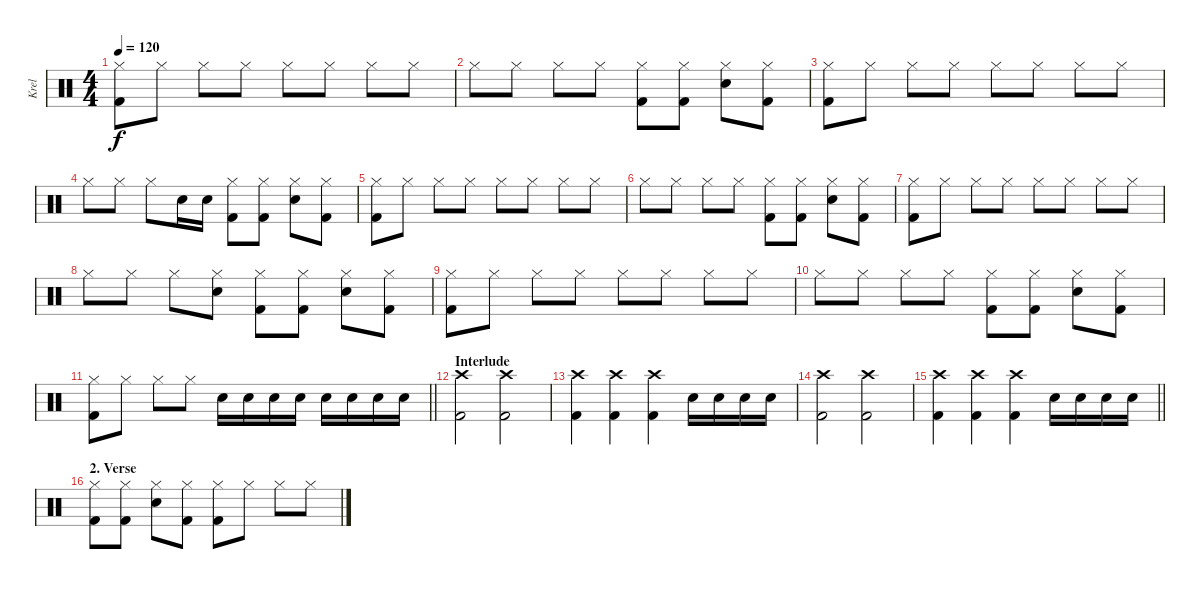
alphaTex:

\track ("Krel" "Krel") {instrument percussion}
\staff {score}
\articulation defaults
\ts (4 4)
\tempo 120
\clef neutral
\ks c
("Hi-Hat (closed)" "Kick (hit) 2").8{dy f} "Hi-Hat (closed)".8 "Hi-Hat (closed)".8 "Hi-Hat (closed)".8 "Hi-Hat (closed)".8 "Hi-Hat (closed)".8 "Hi-Hat (closed)".8 "Hi-Hat (closed)".8 |
"Hi-Hat (closed)".8 "Hi-Hat (closed)".8 "Hi-Hat (closed)".8 "Hi-Hat (closed)".8 ("Hi-Hat (closed)" "Kick (hit) 2").8 ("Hi-Hat (closed)" "Kick (hit) 2").8 ("Hi-Hat (closed)" "Snare (hit) 2").8 ("Hi-Hat (closed)" "Kick (hit) 2").8 |
("Hi-Hat (closed)" "Kick (hit) 2").8 "Hi-Hat (closed)".8 "Hi-Hat (closed)".8 "Hi-Hat (closed)".8 "Hi-Hat (closed)".8 "Hi-Hat (closed)".8 "Hi-Hat (closed)".8 "Hi-Hat (closed)".8 |
"Hi-Hat (closed)".8 "Hi-Hat (closed)".8 "Hi-Hat (closed)".8 "Snare (hit) 2".16 "Snare (hit) 2".16 ("Hi-Hat (closed)" "Kick (hit) 2").8 ("Hi-Hat (closed)" "Kick (hit) 2").8 ("Hi-Hat (closed)" "Snare (hit) 2").8 ("Hi-Hat (closed)" "Kick (hit) 2").8 |
("Hi-Hat (closed)" "Kick (hit) 2").8 "Hi-Hat (closed)".8 "Hi-Hat (closed)".8 "Hi-Hat (closed)".8 "Hi-Hat (closed)".8 "Hi-Hat (closed)".8 "Hi-Hat (closed)".8 "Hi-Hat (closed)".8 |
"Hi-Hat (closed)".8 "Hi-Hat (closed)".8 "Hi-Hat (closed)".8 "Hi-Hat (closed)".8 ("Hi-Hat (closed)" "Kick (hit) 2").8 ("Hi-Hat (closed)" "Kick (hit) 2").8 ("Hi-Hat (closed)" "Snare (hit) 2").8 ("Hi-Hat (closed)" "Kick (hit) 2").8 |
("Hi-Hat (closed)" "Kick (hit) 2").8 "Hi-Hat (closed)".8 "Hi-Hat (closed)".8 "Hi-Hat (closed)".8 "Hi-Hat (closed)".8 "Hi-Hat (closed)".8 "Hi-Hat (closed)".8 "Hi-Hat (closed)".8 |
"Hi-Hat (closed)".8 "Hi-Hat (closed)".8 "Hi-Hat (closed)".8 ("Hi-Hat (closed)" "Snare (hit) 2").8 ("Hi-Hat (closed)" "Kick (hit) 2").8 ("Hi-Hat (closed)" "Kick (hit) 2").8 ("Hi-Hat (closed)" "Snare (hit) 2").8 ("Hi-Hat (closed)" "Kick (hit) 2").8 |
("Hi-Hat (closed)" "Kick (hit) 2").8 "Hi-Hat (closed)".8 "Hi-Hat (closed)".8 "Hi-Hat (closed)".8 "Hi-Hat (closed)".8 "Hi-Hat (closed)".8 "Hi-Hat (closed)".8 "Hi-Hat (closed)".8 |
"Hi-Hat (closed)".8 "Hi-Hat (closed)".8 "Hi-Hat (closed)".8 "Hi-Hat (closed)".8 ("Hi-Hat (closed)" "Kick (hit) 2").8 ("Hi-Hat (closed)" "Kick (hit) 2").8 ("Hi-Hat (closed)" "Snare (hit) 2").8 ("Hi-Hat (closed)" "Kick (hit) 2").8 |
\barLineRight lightlight
("Hi-Hat (closed)" "Kick (hit) 2").8 "Hi-Hat (closed)".8 "Hi-Hat (closed)".8 "Hi-Hat (closed)".8 "Snare (hit) 2".16 "Snare (hit) 2".16 "Snare (hit) 2".16 "Snare (hit) 2".16 "Snare (hit) 2".16 "Snare (hit) 2".16 "Snare (hit) 2".16 "Snare (hit) 2".16 |
\section ("" "Interlude")
("Crash high (hit)" "Kick (hit) 2").2 ("Crash high (hit)" "Kick (hit) 2").2 |
("Crash high (hit)" "Kick (hit) 2").4 ("Crash high (hit)" "Kick (hit) 2").4 ("Crash high (hit)" "Kick (hit) 2").4 "Snare (hit) 2".16 "Snare (hit) 2".16 "Snare (hit) 2".16 "Snare (hit) 2".16 |
("Crash high (hit)" "Kick (hit) 2").2 ("Crash high (hit)" "Kick (hit) 2").2 |
\barLineRight lightlight
("Crash high (hit)" "Kick (hit) 2").4 ("Crash high (hit)" "Kick (hit) 2").4 ("Crash high (hit)" "Kick (hit) 2").4 "Snare (hit) 2".16 "Snare (hit) 2".16 "Snare (hit) 2".16 "Snare (hit) 2".16 |
\section ("" "2. Verse")
("Hi-Hat (closed)" "Kick (hit) 2").8 ("Hi-Hat (closed)" "Kick (hit) 2").8 ("Hi-Hat (closed)" "Snare (hit) 2").8 ("Hi-Hat (closed)" "Kick (hit) 2").8 ("Hi-Hat (closed)" "Kick (hit) 2").8 "Hi-Hat (closed)".8 "Hi-Hat (closed)".8 "Hi-Hat (closed)".8
